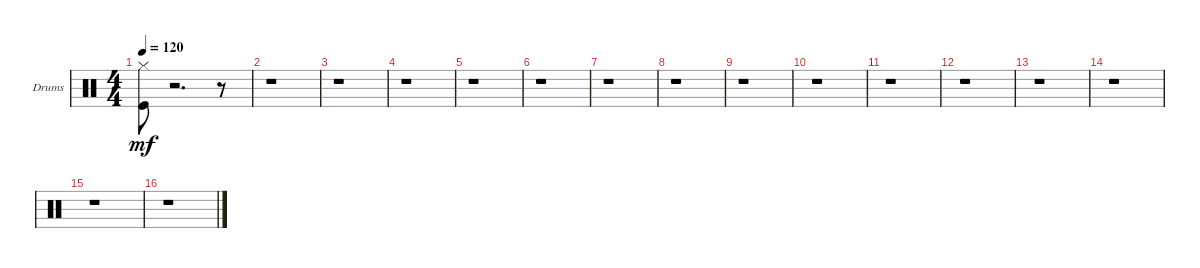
\defaultSystemsLayout 4
\bracketExtendMode groupsimilarinstruments
\firstSystemTrackNameOrientation horizontal
\otherSystemsTrackNameOrientation horizontal
\track ("Drumkit" "Drums") {instrument percussion}
\staff {score}
\articulation defaults
\ts (4 4)
\tempo 120
\clef neutral
\scale
0.333333
\ks c
("Hi-Hat (closed)" "Kick (hit)").8{dy mf} r.2{d} r.8 |
\scale
0.333333 r.1 |
\scale
0.333333 r.1 |
\scale
0.333333 r.1 |
\scale
0.333333 r.1 |
\scale
0.333333 r.1 |
\scale
0.333333 r.1 |
\scale
0.333333 r.1 |
\scale
0.333333 r.1 |
\scale
0.333333 r.1 |
\scale
0.333333 r.1 |
\scale
0.333333 r.1 |
\scale
0.333333 r.1 |
\scale
0.333333 r.1 |
\scale
0.333333 r.1 |
\scale
0.333333 r.1
